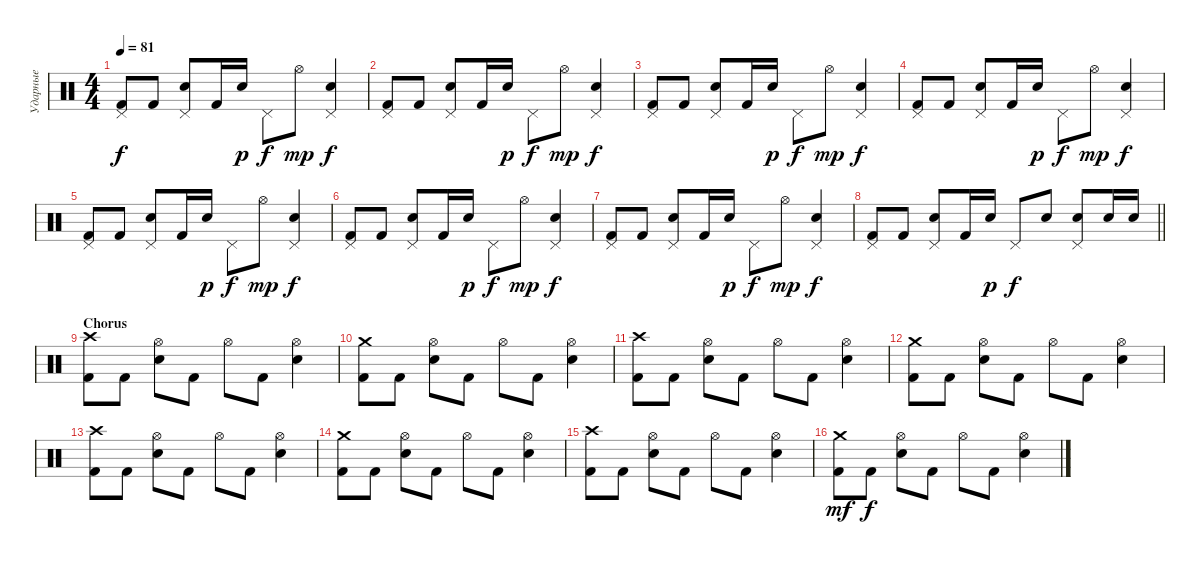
\track ("Ударные" "Ударные") {instrument percussion}
\staff {score}
\articulation defaults
\ts (4 4)
\tempo 81
\clef neutral
\ks c
("Pedal Hi-Hat (hit)" "Kick (hit) 2").8{dy f} "Kick (hit) 2".8 ("Pedal Hi-Hat (hit)" "Electric Snare (hit)").8 "Kick (hit) 2".16 "Electric Snare (hit)".16{dy p} "Pedal Hi-Hat (hit)".8{dy f} "Hi-Hat (open)".8{dy mp} ("Pedal Hi-Hat (hit)" "Electric Snare (hit)").4{dy f} |
("Pedal Hi-Hat (hit)" "Kick (hit) 2").8 "Kick (hit) 2".8 ("Pedal Hi-Hat (hit)" "Electric Snare (hit)").8 "Kick (hit) 2".16 "Electric Snare (hit)".16{dy p} "Pedal Hi-Hat (hit)".8{dy f} "Hi-Hat (open)".8{dy mp} ("Pedal Hi-Hat (hit)" "Electric Snare (hit)").4{dy f} |
("Pedal Hi-Hat (hit)" "Kick (hit) 2").8 "Kick (hit) 2".8 ("Pedal Hi-Hat (hit)" "Electric Snare (hit)").8 "Kick (hit) 2".16 "Electric Snare (hit)".16{dy p} "Pedal Hi-Hat (hit)".8{dy f} "Hi-Hat (open)".8{dy mp} ("Pedal Hi-Hat (hit)" "Electric Snare (hit)").4{dy f} |
("Pedal Hi-Hat (hit)" "Kick (hit) 2").8 "Kick (hit) 2".8 ("Pedal Hi-Hat (hit)" "Electric Snare (hit)").8 "Kick (hit) 2".16 "Electric Snare (hit)".16{dy p} "Pedal Hi-Hat (hit)".8{dy f} "Hi-Hat (open)".8{dy mp} ("Pedal Hi-Hat (hit)" "Electric Snare (hit)").4{dy f} |
("Pedal Hi-Hat (hit)" "Kick (hit) 2").8 "Kick (hit) 2".8 ("Pedal Hi-Hat (hit)" "Electric Snare (hit)").8 "Kick (hit) 2".16 "Electric Snare (hit)".16{dy p} "Pedal Hi-Hat (hit)".8{dy f} "Hi-Hat (open)".8{dy mp} ("Pedal Hi-Hat (hit)" "Electric Snare (hit)").4{dy f} |
("Pedal Hi-Hat (hit)" "Kick (hit) 2").8 "Kick (hit) 2".8 ("Pedal Hi-Hat (hit)" "Electric Snare (hit)").8 "Kick (hit) 2".16 "Electric Snare (hit)".16{dy p} "Pedal Hi-Hat (hit)".8{dy f} "Hi-Hat (open)".8{dy mp} ("Pedal Hi-Hat (hit)" "Electric Snare (hit)").4{dy f} |
("Pedal Hi-Hat (hit)" "Kick (hit) 2").8 "Kick (hit) 2".8 ("Pedal Hi-Hat (hit)" "Electric Snare (hit)").8 "Kick (hit) 2".16 "Electric Snare (hit)".16{dy p} "Pedal Hi-Hat (hit)".8{dy f} "Hi-Hat (open)".8{dy mp} ("Pedal Hi-Hat (hit)" "Electric Snare (hit)").4{dy f} |
\barLineRight lightlight
("Pedal Hi-Hat (hit)" "Kick (hit) 2").8 "Kick (hit) 2".8 ("Pedal Hi-Hat (hit)" "Electric Snare (hit)").8 "Kick (hit) 2".16 "Electric Snare (hit)".16{dy p} "Pedal Hi-Hat (hit)".8{dy f} "Electric Snare (hit)".8 ("Pedal Hi-Hat (hit)" "Electric Snare (hit)").8 "Electric Snare (hit)".16 "Electric Snare (hit)".16 |
\section ("" "Chorus")
("Crash high (hit)" "Kick (hit) 2").8 "Kick (hit) 2".8 ("Hi-Hat (open)" "Electric Snare (hit)").8 "Kick (hit) 2".8 "Hi-Hat (open)".8 "Kick (hit) 2".8 ("Hi-Hat (open)" "Electric Snare (hit)").4 |
("Crash medium (hit)" "Kick (hit) 2").8 "Kick (hit) 2".8 ("Hi-Hat (open)" "Electric Snare (hit)").8 "Kick (hit) 2".8 "Hi-Hat (open)".8 "Kick (hit) 2".8 ("Hi-Hat (open)" "Electric Snare (hit)").4 |
("Crash high (hit)" "Kick (hit) 2").8 "Kick (hit) 2".8 ("Hi-Hat (open)" "Electric Snare (hit)").8 "Kick (hit) 2".8 "Hi-Hat (open)".8 "Kick (hit) 2".8 ("Hi-Hat (open)" "Electric Snare (hit)").4 |
("Crash medium (hit)" "Kick (hit) 2").8 "Kick (hit) 2".8 ("Hi-Hat (open)" "Electric Snare (hit)").8 "Kick (hit) 2".8 "Hi-Hat (open)".8 "Kick (hit) 2".8 ("Hi-Hat (open)" "Electric Snare (hit)").4 |
("Crash high (hit)" "Kick (hit) 2").8 "Kick (hit) 2".8 ("Hi-Hat (open)" "Electric Snare (hit)").8 "Kick (hit) 2".8 "Hi-Hat (open)".8 "Kick (hit) 2".8 ("Hi-Hat (open)" "Electric Snare (hit)").4 |
("Crash medium (hit)" "Kick (hit) 2").8 "Kick (hit) 2".8 ("Hi-Hat (open)" "Electric Snare (hit)").8 "Kick (hit) 2".8 "Hi-Hat (open)".8 "Kick (hit) 2".8 ("Hi-Hat (open)" "Electric Snare (hit)").4 |
("Crash high (hit)" "Kick (hit) 2").8 "Kick (hit) 2".8 ("Hi-Hat (open)" "Electric Snare (hit)").8 "Kick (hit) 2".8 "Hi-Hat (open)".8 "Kick (hit) 2".8 ("Hi-Hat (open)" "Electric Snare (hit)").4 |
("Crash medium (hit)" "Kick (hit) 2").8{dy mf} "Kick (hit) 2".8{dy f} ("Hi-Hat (open)" "Electric Snare (hit)").8 "Kick (hit) 2".8 "Hi-Hat (open)".8 "Kick (hit) 2".8 ("Hi-Hat (open)" "Electric Snare (hit)").4
